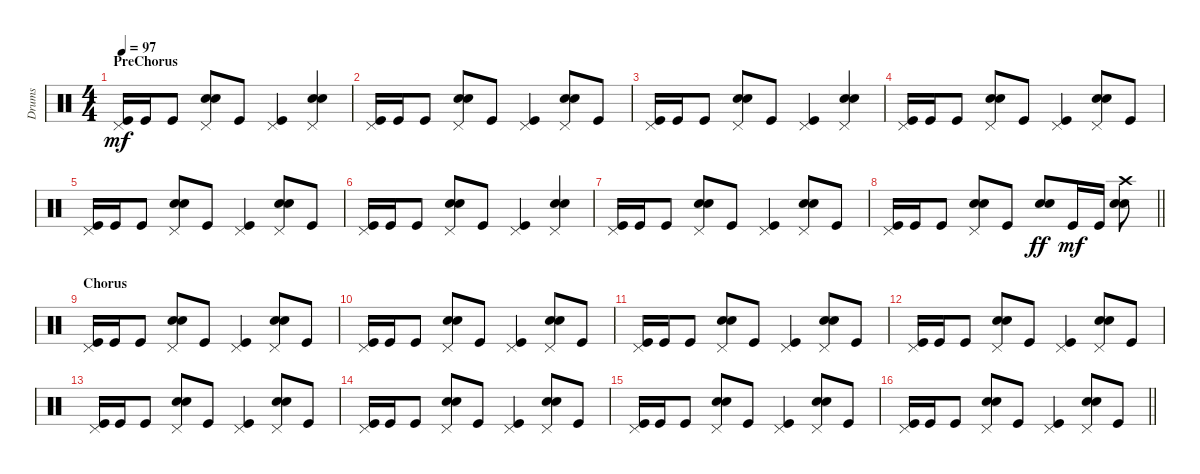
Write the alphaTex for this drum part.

\track ("Drums" "Drums") {instrument percussion}
\staff {score}
\articulation defaults
\ts (4 4)
\section ("" "PreChorus")
\tempo 97
\clef neutral
\ks c
("Pedal Hi-Hat (hit)" "Kick (hit)").16{dy mf} "Kick (hit)".16 "Kick (hit)".8 ("Pedal Hi-Hat (hit)" "Electric Snare (hit)" "Snare (hit) 2").8 "Kick (hit)".8 ("Pedal Hi-Hat (hit)" "Kick (hit)").4 ("Pedal Hi-Hat (hit)" "Electric Snare (hit)" "Snare (hit) 2").4 |
("Pedal Hi-Hat (hit)" "Kick (hit)").16 "Kick (hit)".16 "Kick (hit)".8 ("Pedal Hi-Hat (hit)" "Electric Snare (hit)" "Snare (hit) 2").8 "Kick (hit)".8 ("Pedal Hi-Hat (hit)" "Kick (hit)").4 ("Pedal Hi-Hat (hit)" "Electric Snare (hit)" "Snare (hit) 2").8 "Kick (hit)".8 |
("Pedal Hi-Hat (hit)" "Kick (hit)").16 "Kick (hit)".16 "Kick (hit)".8 ("Pedal Hi-Hat (hit)" "Electric Snare (hit)" "Snare (hit) 2").8 "Kick (hit)".8 ("Pedal Hi-Hat (hit)" "Kick (hit)").4 ("Pedal Hi-Hat (hit)" "Electric Snare (hit)" "Snare (hit) 2").4 |
("Pedal Hi-Hat (hit)" "Kick (hit)").16 "Kick (hit)".16 "Kick (hit)".8 ("Pedal Hi-Hat (hit)" "Electric Snare (hit)" "Snare (hit) 2").8 "Kick (hit)".8 ("Pedal Hi-Hat (hit)" "Kick (hit)").4 ("Pedal Hi-Hat (hit)" "Electric Snare (hit)" "Snare (hit) 2").8 "Kick (hit)".8 |
("Pedal Hi-Hat (hit)" "Kick (hit)").16 "Kick (hit)".16 "Kick (hit)".8 ("Pedal Hi-Hat (hit)" "Electric Snare (hit)" "Snare (hit) 2").8 "Kick (hit)".8 ("Pedal Hi-Hat (hit)" "Kick (hit)").4 ("Pedal Hi-Hat (hit)" "Electric Snare (hit)" "Snare (hit) 2").8 "Kick (hit)".8 |
("Pedal Hi-Hat (hit)" "Kick (hit)").16 "Kick (hit)".16 "Kick (hit)".8 ("Pedal Hi-Hat (hit)" "Electric Snare (hit)" "Snare (hit) 2").8 "Kick (hit)".8 ("Pedal Hi-Hat (hit)" "Kick (hit)").4 ("Pedal Hi-Hat (hit)" "Electric Snare (hit)" "Snare (hit) 2").4 |
("Pedal Hi-Hat (hit)" "Kick (hit)").16 "Kick (hit)".16 "Kick (hit)".8 ("Pedal Hi-Hat (hit)" "Electric Snare (hit)" "Snare (hit) 2").8 "Kick (hit)".8 ("Pedal Hi-Hat (hit)" "Kick (hit)").4 ("Pedal Hi-Hat (hit)" "Electric Snare (hit)" "Snare (hit) 2").8 "Kick (hit)".8 |
\barLineRight lightlight
("Pedal Hi-Hat (hit)" "Kick (hit)").16 "Kick (hit)".16 "Kick (hit)".8 ("Pedal Hi-Hat (hit)" "Electric Snare (hit)" "Snare (hit) 2").8 "Kick (hit)".8 ("Electric Snare (hit)" "Snare (hit) 2").8{dy ff} "Kick (hit)".16{dy mf} "Kick (hit)".16 ("Crash high (hit)" "Electric Snare (hit)" "Snare (hit) 2").8 |
\section ("" "Chorus")
("Pedal Hi-Hat (hit)" "Kick (hit)").16 "Kick (hit)".16 "Kick (hit)".8 ("Pedal Hi-Hat (hit)" "Electric Snare (hit)" "Snare (hit) 2").8 "Kick (hit)".8 ("Pedal Hi-Hat (hit)" "Kick (hit)").4 ("Pedal Hi-Hat (hit)" "Electric Snare (hit)" "Snare (hit) 2").8 "Kick (hit)".8 |
("Pedal Hi-Hat (hit)" "Kick (hit)").16 "Kick (hit)".16 "Kick (hit)".8 ("Pedal Hi-Hat (hit)" "Electric Snare (hit)" "Snare (hit) 2").8 "Kick (hit)".8 ("Pedal Hi-Hat (hit)" "Kick (hit)").4 ("Pedal Hi-Hat (hit)" "Electric Snare (hit)" "Snare (hit) 2").8 "Kick (hit)".8 |
("Pedal Hi-Hat (hit)" "Kick (hit)").16 "Kick (hit)".16 "Kick (hit)".8 ("Pedal Hi-Hat (hit)" "Electric Snare (hit)" "Snare (hit) 2").8 "Kick (hit)".8 ("Pedal Hi-Hat (hit)" "Kick (hit)").4 ("Pedal Hi-Hat (hit)" "Electric Snare (hit)" "Snare (hit) 2").8 "Kick (hit)".8 |
("Pedal Hi-Hat (hit)" "Kick (hit)").16 "Kick (hit)".16 "Kick (hit)".8 ("Pedal Hi-Hat (hit)" "Electric Snare (hit)" "Snare (hit) 2").8 "Kick (hit)".8 ("Pedal Hi-Hat (hit)" "Kick (hit)").4 ("Pedal Hi-Hat (hit)" "Electric Snare (hit)" "Snare (hit) 2").8 "Kick (hit)".8 |
("Pedal Hi-Hat (hit)" "Kick (hit)").16 "Kick (hit)".16 "Kick (hit)".8 ("Pedal Hi-Hat (hit)" "Electric Snare (hit)" "Snare (hit) 2").8 "Kick (hit)".8 ("Pedal Hi-Hat (hit)" "Kick (hit)").4 ("Pedal Hi-Hat (hit)" "Electric Snare (hit)" "Snare (hit) 2").8 "Kick (hit)".8 |
("Pedal Hi-Hat (hit)" "Kick (hit)").16 "Kick (hit)".16 "Kick (hit)".8 ("Pedal Hi-Hat (hit)" "Electric Snare (hit)" "Snare (hit) 2").8 "Kick (hit)".8 ("Pedal Hi-Hat (hit)" "Kick (hit)").4 ("Pedal Hi-Hat (hit)" "Electric Snare (hit)" "Snare (hit) 2").8 "Kick (hit)".8 |
("Pedal Hi-Hat (hit)" "Kick (hit)").16 "Kick (hit)".16 "Kick (hit)".8 ("Pedal Hi-Hat (hit)" "Electric Snare (hit)" "Snare (hit) 2").8 "Kick (hit)".8 ("Pedal Hi-Hat (hit)" "Kick (hit)").4 ("Pedal Hi-Hat (hit)" "Electric Snare (hit)" "Snare (hit) 2").8 "Kick (hit)".8 |
\barLineRight lightlight
("Pedal Hi-Hat (hit)" "Kick (hit)").16 "Kick (hit)".16 "Kick (hit)".8 ("Pedal Hi-Hat (hit)" "Electric Snare (hit)" "Snare (hit) 2").8 "Kick (hit)".8 ("Pedal Hi-Hat (hit)" "Kick (hit)").4 ("Pedal Hi-Hat (hit)" "Electric Snare (hit)" "Snare (hit) 2").8 "Kick (hit)".8
